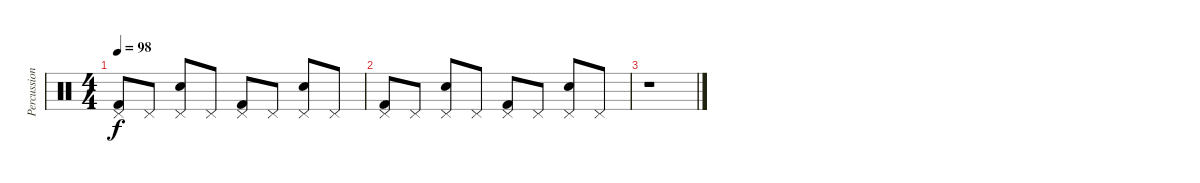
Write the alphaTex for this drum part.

\track ("Percussions" "Percussion") {instrument percussion}
\staff {score}
\articulation defaults
\ts (4 4)
\tempo 98
\clef neutral
\ks c
("Pedal Hi-Hat (hit)" "Kick (hit) 2").8{dy f} "Pedal Hi-Hat (hit)".8 ("Pedal Hi-Hat (hit)" "Electric Snare (hit)").8 "Pedal Hi-Hat (hit)".8 ("Pedal Hi-Hat (hit)" "Kick (hit) 2").8 "Pedal Hi-Hat (hit)".8 ("Pedal Hi-Hat (hit)" "Electric Snare (hit)").8 "Pedal Hi-Hat (hit)".8 |
("Pedal Hi-Hat (hit)" "Kick (hit) 2").8 "Pedal Hi-Hat (hit)".8 ("Pedal Hi-Hat (hit)" "Electric Snare (hit)").8 "Pedal Hi-Hat (hit)".8 ("Pedal Hi-Hat (hit)" "Kick (hit) 2").8 "Pedal Hi-Hat (hit)".8 ("Pedal Hi-Hat (hit)" "Electric Snare (hit)").8 "Pedal Hi-Hat (hit)".8 |
r.1
